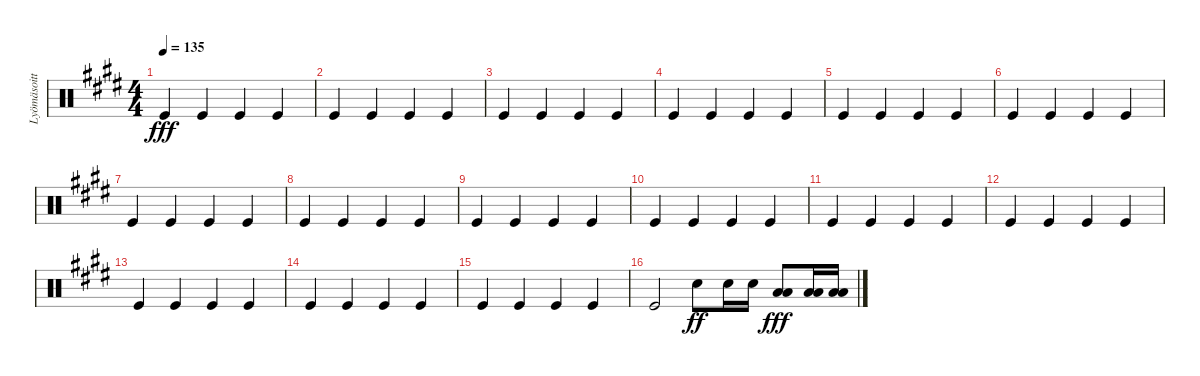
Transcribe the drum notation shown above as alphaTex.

\track ("Lyömäsoittimet" "Lyömäsoitt") {instrument percussion}
\staff {score}
\articulation defaults
\ts (4 4)
\tempo 135
\clef neutral
\ks e "Kick (hit)".4{dy fff} "Kick (hit)".4 "Kick (hit)".4 "Kick (hit)".4
|
"Kick (hit)".4 "Kick (hit)".4 "Kick (hit)".4 "Kick (hit)".4 |
"Kick (hit)".4 "Kick (hit)".4 "Kick (hit)".4 "Kick (hit)".4 |
"Kick (hit)".4 "Kick (hit)".4 "Kick (hit)".4 "Kick (hit)".4 |
"Kick (hit)".4 "Kick (hit)".4 "Kick (hit)".4 "Kick (hit)".4 |
"Kick (hit)".4 "Kick (hit)".4 "Kick (hit)".4 "Kick (hit)".4 |
"Kick (hit)".4 "Kick (hit)".4 "Kick (hit)".4 "Kick (hit)".4 |
"Kick (hit)".4 "Kick (hit)".4 "Kick (hit)".4 "Kick (hit)".4 |
"Kick (hit)".4 "Kick (hit)".4 "Kick (hit)".4 "Kick (hit)".4 |
"Kick (hit)".4 "Kick (hit)".4 "Kick (hit)".4 "Kick (hit)".4 |
"Kick (hit)".4 "Kick (hit)".4 "Kick (hit)".4 "Kick (hit)".4 |
"Kick (hit)".4 "Kick (hit)".4 "Kick (hit)".4 "Kick (hit)".4 |
"Kick (hit)".4 "Kick (hit)".4 "Kick (hit)".4 "Kick (hit)".4 |
"Kick (hit)".4 "Kick (hit)".4 "Kick (hit)".4 "Kick (hit)".4 |
"Kick (hit)".4 "Kick (hit)".4 "Kick (hit)".4 "Kick (hit)".4 |
"Kick (hit)".2 "Snare (hit) 2".8{dy ff} "Snare (hit) 2".16 "Snare (hit) 2".16 ("Low Tom (hit)" "Low Floor Tom (hit)").8{dy fff} ("Low Tom (hit)" "Low Floor Tom (hit)").16 ("Low Tom (hit)" "Low Floor Tom (hit)").16
